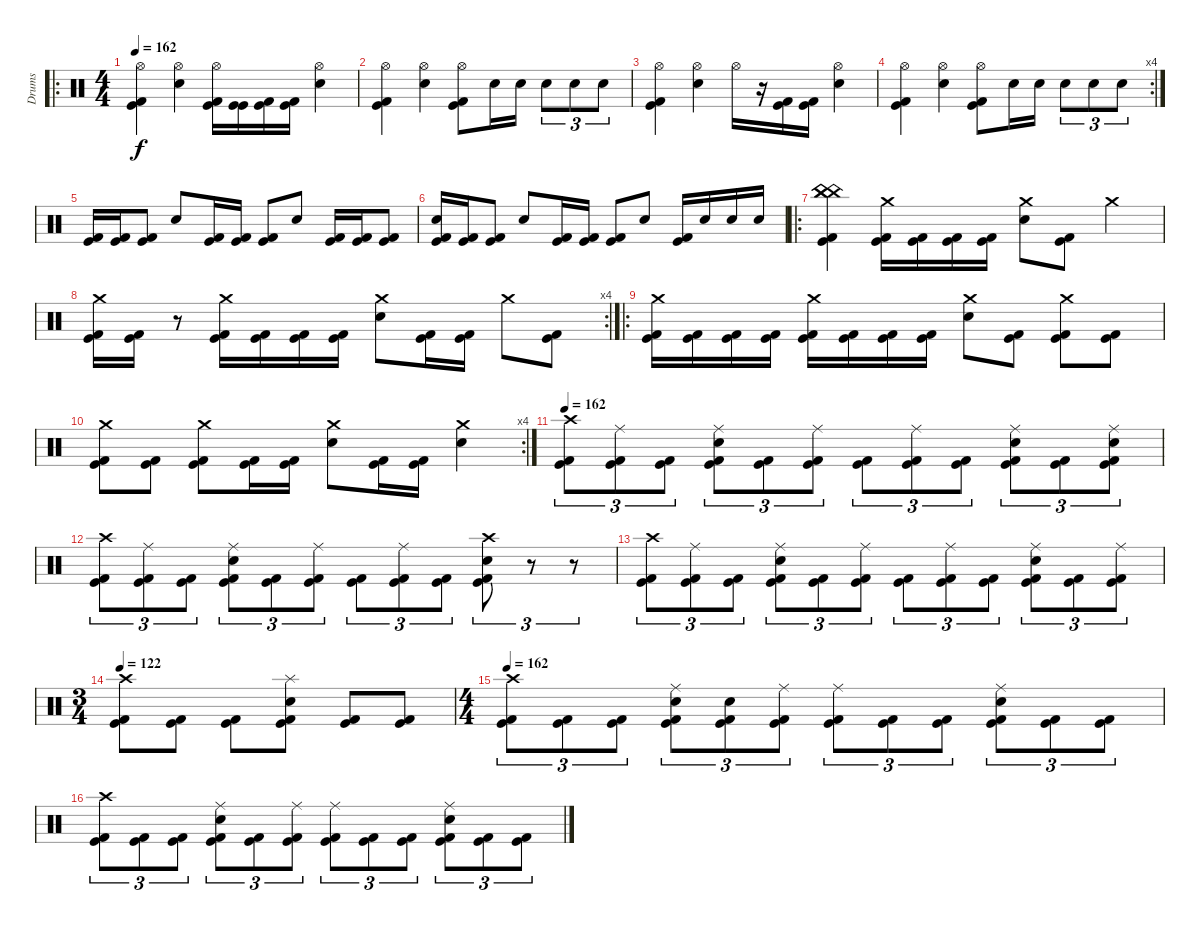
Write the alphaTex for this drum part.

\track ("Drums" "Drums") {instrument percussion}
\staff {score}
\articulation defaults
\ro
\ts (4 4)
\tempo 162
\clef neutral
\ks c
("Hi-Hat (open)" "Kick (hit)" "Kick (hit) 2").4{dy f} ("Hi-Hat (open)" "Snare (hit) 2").4 ("Hi-Hat (open)" "Kick (hit)" "Kick (hit) 2").16 ("Kick (hit)" "Kick (hit)").16 ("Kick (hit)" "Kick (hit) 2").16 ("Kick (hit)" "Kick (hit) 2").16 ("Hi-Hat (open)" "Snare (hit) 2").4 |
("Hi-Hat (open)" "Kick (hit)" "Kick (hit) 2").4 ("Hi-Hat (open)" "Snare (hit) 2").4 ("Hi-Hat (open)" "Kick (hit)" "Kick (hit) 2").8 "Snare (hit) 2".16 "Snare (hit) 2".16 "Snare (hit) 2".8{tu (3 2)} "Snare (hit) 2".8{tu (3 2)} "Snare (hit) 2".8{tu (3 2)} |
("Hi-Hat (open)" "Kick (hit)" "Kick (hit) 2").4 ("Hi-Hat (open)" "Snare (hit) 2").4 "Hi-Hat (open)".16 r.16 ("Kick (hit)" "Kick (hit) 2").16 ("Kick (hit)" "Kick (hit) 2").16 ("Hi-Hat (open)" "Snare (hit) 2").4 |
\rc 4
("Hi-Hat (open)" "Kick (hit)" "Kick (hit) 2").4 ("Hi-Hat (open)" "Snare (hit) 2").4 ("Hi-Hat (open)" "Kick (hit)" "Kick (hit) 2").8 "Snare (hit) 2".16 "Snare (hit) 2".16 "Snare (hit) 2".8{tu (3 2)} "Snare (hit) 2".8{tu (3 2)} "Snare (hit) 2".8{tu (3 2)} |
("Kick (hit)" "Kick (hit) 2").16 ("Kick (hit)" "Kick (hit) 2").16 ("Kick (hit)" "Kick (hit) 2").8 "Snare (hit) 2".8 ("Kick (hit)" "Kick (hit) 2").16 ("Kick (hit)" "Kick (hit) 2").16 ("Kick (hit)" "Kick (hit) 2").8 "Snare (hit) 2".8 ("Kick (hit)" "Kick (hit) 2").16 ("Kick (hit)" "Kick (hit) 2").16 ("Kick (hit)" "Kick (hit) 2").8 |
("Snare (hit) 2" "Kick (hit)" "Kick (hit) 2").16 ("Kick (hit)" "Kick (hit) 2").16 ("Kick (hit)" "Kick (hit) 2").8 "Snare (hit) 2".8 ("Kick (hit)" "Kick (hit) 2").16 ("Kick (hit)" "Kick (hit) 2").16 ("Kick (hit)" "Kick (hit) 2").8 "Snare (hit) 2".8 ("Kick (hit)" "Kick (hit) 2").16 "Snare (hit) 2".16 "Snare (hit) 2".16 "Snare (hit) 2".16 |
\ro
("China (hit)" "China (hit)" "China (hit)" "Kick (hit)" "Kick (hit) 2").4 ("Crash medium (hit)" "Kick (hit)" "Kick (hit) 2").16 ("Kick (hit)" "Kick (hit) 2").16 ("Kick (hit)" "Kick (hit) 2").16 ("Kick (hit)" "Kick (hit) 2").16 ("Crash medium (hit)" "Snare (hit) 2").8 ("Kick (hit)" "Kick (hit) 2").8 "Crash medium (hit)".4 |
\rc 4
("Crash medium (hit)" "Kick (hit)" "Kick (hit) 2").16 ("Kick (hit)" "Kick (hit) 2").16 r.8 ("Crash medium (hit)" "Kick (hit)" "Kick (hit) 2").16 ("Kick (hit)" "Kick (hit) 2").16 ("Kick (hit)" "Kick (hit) 2").16 ("Kick (hit)" "Kick (hit) 2").16 ("Crash medium (hit)" "Snare (hit) 2").8 ("Kick (hit)" "Kick (hit) 2").16 ("Kick (hit)" "Kick (hit) 2").16 "Crash medium (hit)".8 ("Kick (hit)" "Kick (hit) 2").8 |
\ro
("Crash medium (hit)" "Kick (hit)" "Kick (hit) 2").16 ("Kick (hit)" "Kick (hit) 2").16 ("Kick (hit)" "Kick (hit) 2").16 ("Kick (hit)" "Kick (hit) 2").16 ("Crash medium (hit)" "Kick (hit)" "Kick (hit) 2").16 ("Kick (hit)" "Kick (hit) 2").16 ("Kick (hit)" "Kick (hit) 2").16 ("Kick (hit)" "Kick (hit) 2").16 ("Crash medium (hit)" "Snare (hit) 2").8 ("Kick (hit)" "Kick (hit) 2").8 ("Crash medium (hit)" "Kick (hit)" "Kick (hit) 2").8 ("Kick (hit)" "Kick (hit) 2").8 |
\rc 4
("Crash medium (hit)" "Kick (hit)" "Kick (hit) 2").8 ("Kick (hit)" "Kick (hit) 2").8 ("Crash medium (hit)" "Kick (hit)" "Kick (hit) 2").8 ("Kick (hit)" "Kick (hit) 2").16 ("Kick (hit)" "Kick (hit) 2").16 ("Crash medium (hit)" "Snare (hit) 2").8 ("Kick (hit)" "Kick (hit) 2").16 ("Kick (hit)" "Kick (hit) 2").16 ("Crash medium (hit)" "Snare (hit) 2").4 |
\tempo 162
("Crash high (hit)" "Kick (hit)" "Kick (hit) 2").8{tu (3 2)} ("Ride (middle)" "Kick (hit)" "Kick (hit) 2").8{tu (3 2)} ("Kick (hit)" "Kick (hit) 2").8{tu (3 2)} ("Ride (middle)" "Snare (hit) 2" "Kick (hit)" "Kick (hit) 2").8{tu (3 2)} ("Kick (hit)" "Kick (hit) 2").8{tu (3 2)} ("Ride (middle)" "Kick (hit)" "Kick (hit) 2").8{tu (3 2)} ("Kick (hit)" "Kick (hit) 2").8{tu (3 2)} ("Ride (middle)" "Kick (hit)" "Kick (hit) 2").8{tu (3 2)} ("Kick (hit)" "Kick (hit) 2").8{tu (3 2)} ("Ride (middle)" "Snare (hit) 2" "Kick (hit)" "Kick (hit) 2").8{tu (3 2)} ("Kick (hit)" "Kick (hit) 2").8{tu (3 2)} ("Ride (middle)" "Snare (hit) 2" "Kick (hit)" "Kick (hit) 2").8{tu (3 2)} |
("Crash high (hit)" "Kick (hit)" "Kick (hit) 2").8{tu (3 2)} ("Ride (middle)" "Kick (hit)" "Kick (hit) 2").8{tu (3 2)} ("Kick (hit)" "Kick (hit) 2").8{tu (3 2)} ("Ride (middle)" "Snare (hit) 2" "Kick (hit)" "Kick (hit) 2").8{tu (3 2)} ("Kick (hit)" "Kick (hit) 2").8{tu (3 2)} ("Ride (middle)" "Kick (hit)" "Kick (hit) 2").8{tu (3 2)} ("Kick (hit)" "Kick (hit) 2").8{tu (3 2)} ("Ride (middle)" "Kick (hit)" "Kick (hit) 2").8{tu (3 2)} ("Kick (hit)" "Kick (hit) 2").8{tu (3 2)} ("Crash high (hit)" "Snare (hit) 2" "Kick (hit)" "Kick (hit) 2").8{tu (3 2)} r.8{tu (3 2)} r.8{tu (3 2)} |
("Crash high (hit)" "Kick (hit)" "Kick (hit) 2").8{tu (3 2)} ("Ride (middle)" "Kick (hit)" "Kick (hit) 2").8{tu (3 2)} ("Kick (hit)" "Kick (hit) 2").8{tu (3 2)} ("Ride (middle)" "Snare (hit) 2" "Kick (hit)" "Kick (hit) 2").8{tu (3 2)} ("Kick (hit)" "Kick (hit) 2").8{tu (3 2)} ("Ride (middle)" "Kick (hit)" "Kick (hit) 2").8{tu (3 2)} ("Kick (hit)" "Kick (hit) 2").8{tu (3 2)} ("Ride (middle)" "Kick (hit)" "Kick (hit) 2").8{tu (3 2)} ("Kick (hit)" "Kick (hit) 2").8{tu (3 2)} ("Ride (middle)" "Snare (hit) 2" "Kick (hit)" "Kick (hit) 2").8{tu (3 2)} ("Kick (hit)" "Kick (hit) 2").8{tu (3 2)} ("Ride (middle)" "Kick (hit)" "Kick (hit) 2").8{tu (3 2)} |
\ts (3 4)
\tempo 122
("Crash high (hit)" "Kick (hit)" "Kick (hit) 2").8{volume 16} ("Kick (hit)" "Kick (hit) 2").8{volume 16} ("Kick (hit)" "Kick (hit) 2").8{volume 16} ("Splash (hit)" "Snare (hit) 2" "Kick (hit)" "Kick (hit) 2").8{volume 16} ("Kick (hit)" "Kick (hit) 2").8{volume 16} ("Kick (hit)" "Kick (hit) 2").8{volume 16} |
\ts (4 4)
\tempo 162
("Crash high (hit)" "Kick (hit)" "Kick (hit) 2").8{tu (3 2)} ("Kick (hit)" "Kick (hit) 2").8{tu (3 2)} ("Kick (hit)" "Kick (hit) 2").8{tu (3 2)} ("Ride (middle)" "Snare (hit) 2" "Kick (hit)" "Kick (hit) 2").8{tu (3 2)} ("Snare (hit) 2" "Kick (hit)" "Kick (hit) 2").8{tu (3 2)} ("Ride (middle)" "Kick (hit)" "Kick (hit) 2").8{tu (3 2)} ("Ride (middle)" "Kick (hit)" "Kick (hit) 2").8{tu (3 2)} ("Kick (hit)" "Kick (hit) 2").8{tu (3 2)} ("Kick (hit)" "Kick (hit) 2").8{tu (3 2)} ("Ride (middle)" "Snare (hit) 2" "Kick (hit)" "Kick (hit) 2").8{tu (3 2)} ("Kick (hit)" "Kick (hit) 2").8{tu (3 2)} ("Kick (hit)" "Kick (hit) 2").8{tu (3 2)} |
("Crash high (hit)" "Kick (hit)" "Kick (hit) 2").8{tu (3 2)} ("Kick (hit)" "Kick (hit) 2").8{tu (3 2)} ("Kick (hit)" "Kick (hit) 2").8{tu (3 2)} ("Ride (middle)" "Snare (hit) 2" "Kick (hit)" "Kick (hit) 2").8{tu (3 2)} ("Kick (hit)" "Kick (hit) 2").8{tu (3 2)} ("Ride (middle)" "Kick (hit)" "Kick (hit) 2").8{tu (3 2)} ("Ride (middle)" "Kick (hit)" "Kick (hit) 2").8{tu (3 2)} ("Kick (hit)" "Kick (hit) 2").8{tu (3 2)} ("Kick (hit)" "Kick (hit) 2").8{tu (3 2)} ("Ride (middle)" "Snare (hit) 2" "Kick (hit)" "Kick (hit) 2").8{tu (3 2)} ("Kick (hit)" "Kick (hit) 2").8{tu (3 2)} ("Kick (hit)" "Kick (hit) 2").8{tu (3 2)}
